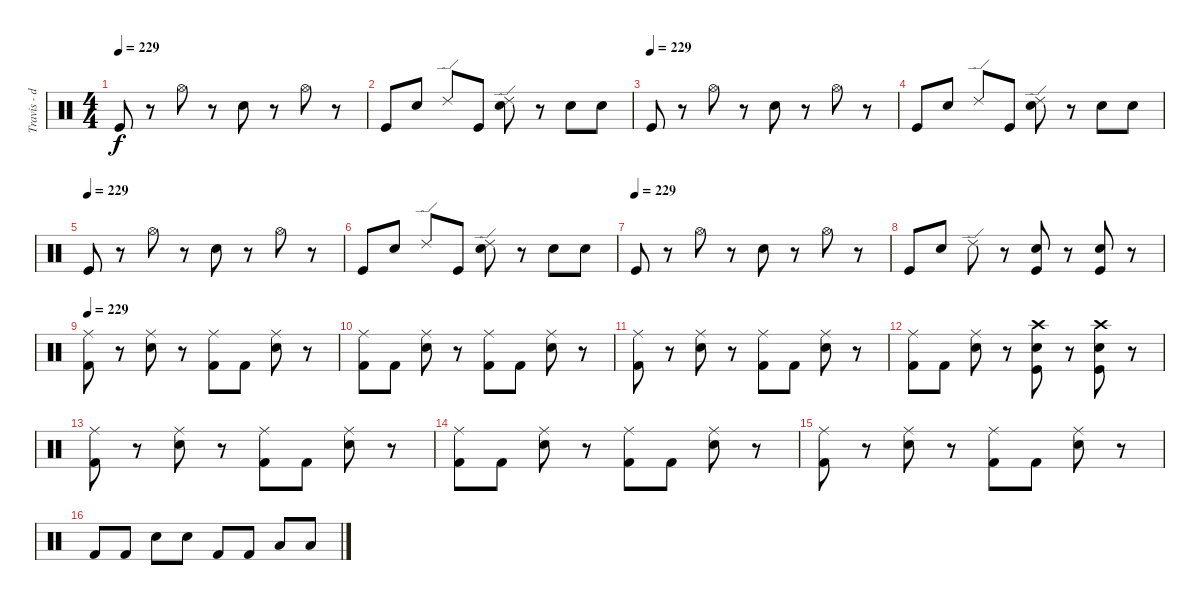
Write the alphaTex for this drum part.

\track ("Travis - drums" "Travis - d") {instrument percussion}
\staff {score}
\articulation defaults
\ts (4 4)
\tempo 229
\clef neutral
\ks c "Kick (hit)".8{dy f}
r.8 "Hi-Hat (open)".8 r.8 "Electric Snare (hit)".8 r.8 "Hi-Hat (open)".8 r.8 |
"Kick (hit)".8 "Electric Snare (hit)".8 "Ride (edge) 2".8 "Kick (hit)".8 ("Ride (edge) 2" "Electric Snare (hit)").8 r.8 "Snare (hit) 2".8 "Electric Snare (hit)".8 |
\tempo (229)
"Kick (hit)".8 r.8 "Hi-Hat (open)".8 r.8 "Electric Snare (hit)".8 r.8 "Hi-Hat (open)".8 r.8 |
"Kick (hit)".8 "Electric Snare (hit)".8 "Ride (edge) 2".8 "Kick (hit)".8 ("Ride (edge) 2" "Electric Snare (hit)").8 r.8 "Snare (hit) 2".8 "Electric Snare (hit)".8 |
\tempo (229)
"Kick (hit)".8 r.8 "Hi-Hat (open)".8 r.8 "Electric Snare (hit)".8 r.8 "Hi-Hat (open)".8 r.8 |
"Kick (hit)".8 "Electric Snare (hit)".8 "Ride (edge) 2".8 "Kick (hit)".8 ("Ride (edge) 2" "Electric Snare (hit)").8 r.8 "Snare (hit) 2".8 "Electric Snare (hit)".8 |
\tempo (229)
"Kick (hit)".8 r.8 "Hi-Hat (open)".8 r.8 "Electric Snare (hit)".8 r.8 "Hi-Hat (open)".8 r.8 |
"Kick (hit)".8 "Electric Snare (hit)".8 "Ride (edge) 2".8 r.8 ("Kick (hit)" "Electric Snare (hit)").8 r.8 ("Kick (hit)" "Electric Snare (hit)").8 r.8 |
\tempo 229
("Ride (middle)" "Kick (hit) 2").8 r.8 ("Ride (middle)" "Electric Snare (hit)").8 r.8 ("Ride (middle)" "Kick (hit) 2").8 "Kick (hit) 2".8 ("Ride (middle)" "Electric Snare (hit)").8 r.8 |
("Ride (middle)" "Kick (hit) 2").8 "Kick (hit) 2".8 ("Ride (middle)" "Electric Snare (hit)").8 r.8 ("Ride (middle)" "Kick (hit) 2").8 "Kick (hit) 2".8 ("Ride (middle)" "Electric Snare (hit)").8 r.8 |
("Ride (middle)" "Kick (hit) 2").8 r.8 ("Ride (middle)" "Electric Snare (hit)").8 r.8 ("Ride (middle)" "Kick (hit) 2").8 "Kick (hit) 2".8 ("Ride (middle)" "Electric Snare (hit)").8 r.8 |
("Ride (middle)" "Kick (hit) 2").8 "Kick (hit) 2".8 ("Ride (middle)" "Electric Snare (hit)").8 r.8 ("Crash high (hit)" "Kick (hit)" "Electric Snare (hit)").8 r.8 ("Crash high (hit)" "Kick (hit)" "Electric Snare (hit)").8 r.8 |
("Ride (middle)" "Kick (hit) 2").8 r.8 ("Ride (middle)" "Electric Snare (hit)").8 r.8 ("Ride (middle)" "Kick (hit) 2").8 "Kick (hit) 2".8 ("Ride (middle)" "Electric Snare (hit)").8 r.8 |
("Ride (middle)" "Kick (hit) 2").8 "Kick (hit) 2".8 ("Ride (middle)" "Electric Snare (hit)").8 r.8 ("Ride (middle)" "Kick (hit) 2").8 "Kick (hit) 2".8 ("Ride (middle)" "Electric Snare (hit)").8 r.8 |
("Ride (middle)" "Kick (hit) 2").8 r.8 ("Ride (middle)" "Electric Snare (hit)").8 r.8 ("Ride (middle)" "Kick (hit) 2").8 "Kick (hit) 2".8 ("Ride (middle)" "Electric Snare (hit)").8 r.8 |
"Kick (hit) 2".8 "Kick (hit) 2".8 "Electric Snare (hit)".8 "Electric Snare (hit)".8 "Kick (hit) 2".8 "Kick (hit) 2".8 "Low Floor Tom (hit)".8 "Low Floor Tom (hit)".8
